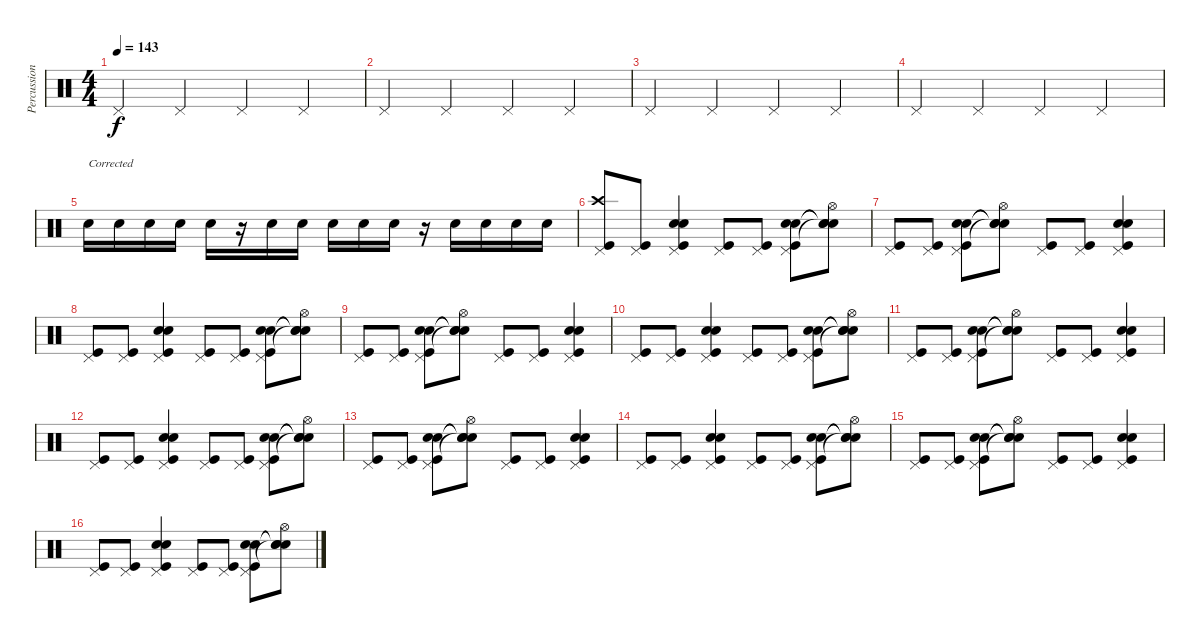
\track ("Percussions" "Percussion") {instrument percussion}
\staff {score}
\articulation defaults
\ts (4 4)
\tempo 143
\clef neutral
\ks c "Pedal Hi-Hat (hit)".4{dy f} "Pedal Hi-Hat (hit)".4 "Pedal Hi-Hat (hit)".4 "Pedal Hi-Hat (hit)".4
|
"Pedal Hi-Hat (hit)".4 "Pedal Hi-Hat (hit)".4 "Pedal Hi-Hat (hit)".4 "Pedal Hi-Hat (hit)".4 |
"Pedal Hi-Hat (hit)".4 "Pedal Hi-Hat (hit)".4 "Pedal Hi-Hat (hit)".4 "Pedal Hi-Hat (hit)".4 |
"Pedal Hi-Hat (hit)".4 "Pedal Hi-Hat (hit)".4 "Pedal Hi-Hat (hit)".4 "Pedal Hi-Hat (hit)".4 |
"Snare (hit) 2".16{txt "Corrected"} "Snare (hit) 2".16 "Snare (hit) 2".16 "Snare (hit) 2".16 "Snare (hit) 2".16 r.16 "Snare (hit) 2".16 "Snare (hit) 2".16 "Snare (hit) 2".16 "Snare (hit) 2".16 "Snare (hit) 2".16 r.16 "Snare (hit) 2".16 "Snare (hit) 2".16 "Snare (hit) 2".16 "Snare (hit) 2".16 |
("Pedal Hi-Hat (hit)" "Crash high (hit)" "Kick (hit)").8 ("Pedal Hi-Hat (hit)" "Kick (hit)").8 ("Pedal Hi-Hat (hit)" "Snare (hit) 2" "Snare (hit) 2" "Kick (hit)").4 ("Pedal Hi-Hat (hit)" "Kick (hit)").8 ("Pedal Hi-Hat (hit)" "Kick (hit)").8 ("Pedal Hi-Hat (hit)" "Snare (hit) 2" "Snare (hit) 2" "Kick (hit)").8 ("Hi-Hat (open)" "Snare (hit)"{t} "Snare (hit)"{t} "Snare (hit)"{t}).8 |
("Pedal Hi-Hat (hit)" "Kick (hit)").8 ("Pedal Hi-Hat (hit)" "Kick (hit)").8 ("Pedal Hi-Hat (hit)" "Snare (hit) 2" "Snare (hit) 2" "Kick (hit)").8 ("Hi-Hat (open)" "Snare (hit)"{t} "Snare (hit)"{t} "Snare (hit)"{t}).8 ("Pedal Hi-Hat (hit)" "Kick (hit)").8 ("Pedal Hi-Hat (hit)" "Kick (hit)").8 ("Pedal Hi-Hat (hit)" "Snare (hit) 2" "Snare (hit) 2" "Kick (hit)").4 |
("Pedal Hi-Hat (hit)" "Kick (hit)").8 ("Pedal Hi-Hat (hit)" "Kick (hit)").8 ("Pedal Hi-Hat (hit)" "Snare (hit) 2" "Snare (hit) 2" "Kick (hit)").4 ("Pedal Hi-Hat (hit)" "Kick (hit)").8 ("Pedal Hi-Hat (hit)" "Kick (hit)").8 ("Pedal Hi-Hat (hit)" "Snare (hit) 2" "Snare (hit) 2" "Kick (hit)").8 ("Hi-Hat (open)" "Snare (hit)"{t} "Snare (hit)"{t} "Snare (hit)"{t}).8 |
("Pedal Hi-Hat (hit)" "Kick (hit)").8 ("Pedal Hi-Hat (hit)" "Kick (hit)").8 ("Pedal Hi-Hat (hit)" "Snare (hit) 2" "Snare (hit) 2" "Kick (hit)").8 ("Hi-Hat (open)" "Snare (hit)"{t} "Snare (hit)"{t} "Snare (hit)"{t}).8 ("Pedal Hi-Hat (hit)" "Kick (hit)").8 ("Pedal Hi-Hat (hit)" "Kick (hit)").8 ("Pedal Hi-Hat (hit)" "Snare (hit) 2" "Snare (hit) 2" "Kick (hit)").4 |
("Pedal Hi-Hat (hit)" "Kick (hit)").8 ("Pedal Hi-Hat (hit)" "Kick (hit)").8 ("Pedal Hi-Hat (hit)" "Snare (hit) 2" "Snare (hit) 2" "Kick (hit)").4 ("Pedal Hi-Hat (hit)" "Kick (hit)").8 ("Pedal Hi-Hat (hit)" "Kick (hit)").8 ("Pedal Hi-Hat (hit)" "Snare (hit) 2" "Snare (hit) 2" "Kick (hit)").8 ("Hi-Hat (open)" "Snare (hit)"{t} "Snare (hit)"{t} "Snare (hit)"{t}).8 |
("Pedal Hi-Hat (hit)" "Kick (hit)").8 ("Pedal Hi-Hat (hit)" "Kick (hit)").8 ("Pedal Hi-Hat (hit)" "Snare (hit) 2" "Snare (hit) 2" "Kick (hit)").8 ("Hi-Hat (open)" "Snare (hit)"{t} "Snare (hit)"{t} "Snare (hit)"{t}).8 ("Pedal Hi-Hat (hit)" "Kick (hit)").8 ("Pedal Hi-Hat (hit)" "Kick (hit)").8 ("Pedal Hi-Hat (hit)" "Snare (hit) 2" "Snare (hit) 2" "Kick (hit)").4 |
("Pedal Hi-Hat (hit)" "Kick (hit)").8 ("Pedal Hi-Hat (hit)" "Kick (hit)").8 ("Pedal Hi-Hat (hit)" "Snare (hit) 2" "Snare (hit) 2" "Kick (hit)").4 ("Pedal Hi-Hat (hit)" "Kick (hit)").8 ("Pedal Hi-Hat (hit)" "Kick (hit)").8 ("Pedal Hi-Hat (hit)" "Snare (hit) 2" "Snare (hit) 2" "Kick (hit)").8 ("Hi-Hat (open)" "Snare (hit)"{t} "Snare (hit)"{t} "Snare (hit)"{t}).8 |
("Pedal Hi-Hat (hit)" "Kick (hit)").8 ("Pedal Hi-Hat (hit)" "Kick (hit)").8 ("Pedal Hi-Hat (hit)" "Snare (hit) 2" "Snare (hit) 2" "Kick (hit)").8 ("Hi-Hat (open)" "Snare (hit)"{t} "Snare (hit)"{t} "Snare (hit)"{t}).8 ("Pedal Hi-Hat (hit)" "Kick (hit)").8 ("Pedal Hi-Hat (hit)" "Kick (hit)").8 ("Pedal Hi-Hat (hit)" "Snare (hit) 2" "Snare (hit) 2" "Kick (hit)").4 |
("Pedal Hi-Hat (hit)" "Kick (hit)").8 ("Pedal Hi-Hat (hit)" "Kick (hit)").8 ("Pedal Hi-Hat (hit)" "Snare (hit) 2" "Snare (hit) 2" "Kick (hit)").4 ("Pedal Hi-Hat (hit)" "Kick (hit)").8 ("Pedal Hi-Hat (hit)" "Kick (hit)").8 ("Pedal Hi-Hat (hit)" "Snare (hit) 2" "Snare (hit) 2" "Kick (hit)").8 ("Hi-Hat (open)" "Snare (hit)"{t} "Snare (hit)"{t} "Snare (hit)"{t}).8 |
("Pedal Hi-Hat (hit)" "Kick (hit)").8 ("Pedal Hi-Hat (hit)" "Kick (hit)").8 ("Pedal Hi-Hat (hit)" "Snare (hit) 2" "Snare (hit) 2" "Kick (hit)").8 ("Hi-Hat (open)" "Snare (hit)"{t} "Snare (hit)"{t} "Snare (hit)"{t}).8 ("Pedal Hi-Hat (hit)" "Kick (hit)").8 ("Pedal Hi-Hat (hit)" "Kick (hit)").8 ("Pedal Hi-Hat (hit)" "Snare (hit) 2" "Snare (hit) 2" "Kick (hit)").4 |
("Pedal Hi-Hat (hit)" "Kick (hit)").8 ("Pedal Hi-Hat (hit)" "Kick (hit)").8 ("Pedal Hi-Hat (hit)" "Snare (hit) 2" "Snare (hit) 2" "Kick (hit)").4 ("Pedal Hi-Hat (hit)" "Kick (hit)").8 ("Pedal Hi-Hat (hit)" "Kick (hit)").8 ("Pedal Hi-Hat (hit)" "Snare (hit) 2" "Snare (hit) 2" "Kick (hit)").8 ("Hi-Hat (open)" "Snare (hit)"{t} "Snare (hit)"{t} "Snare (hit)"{t}).8
